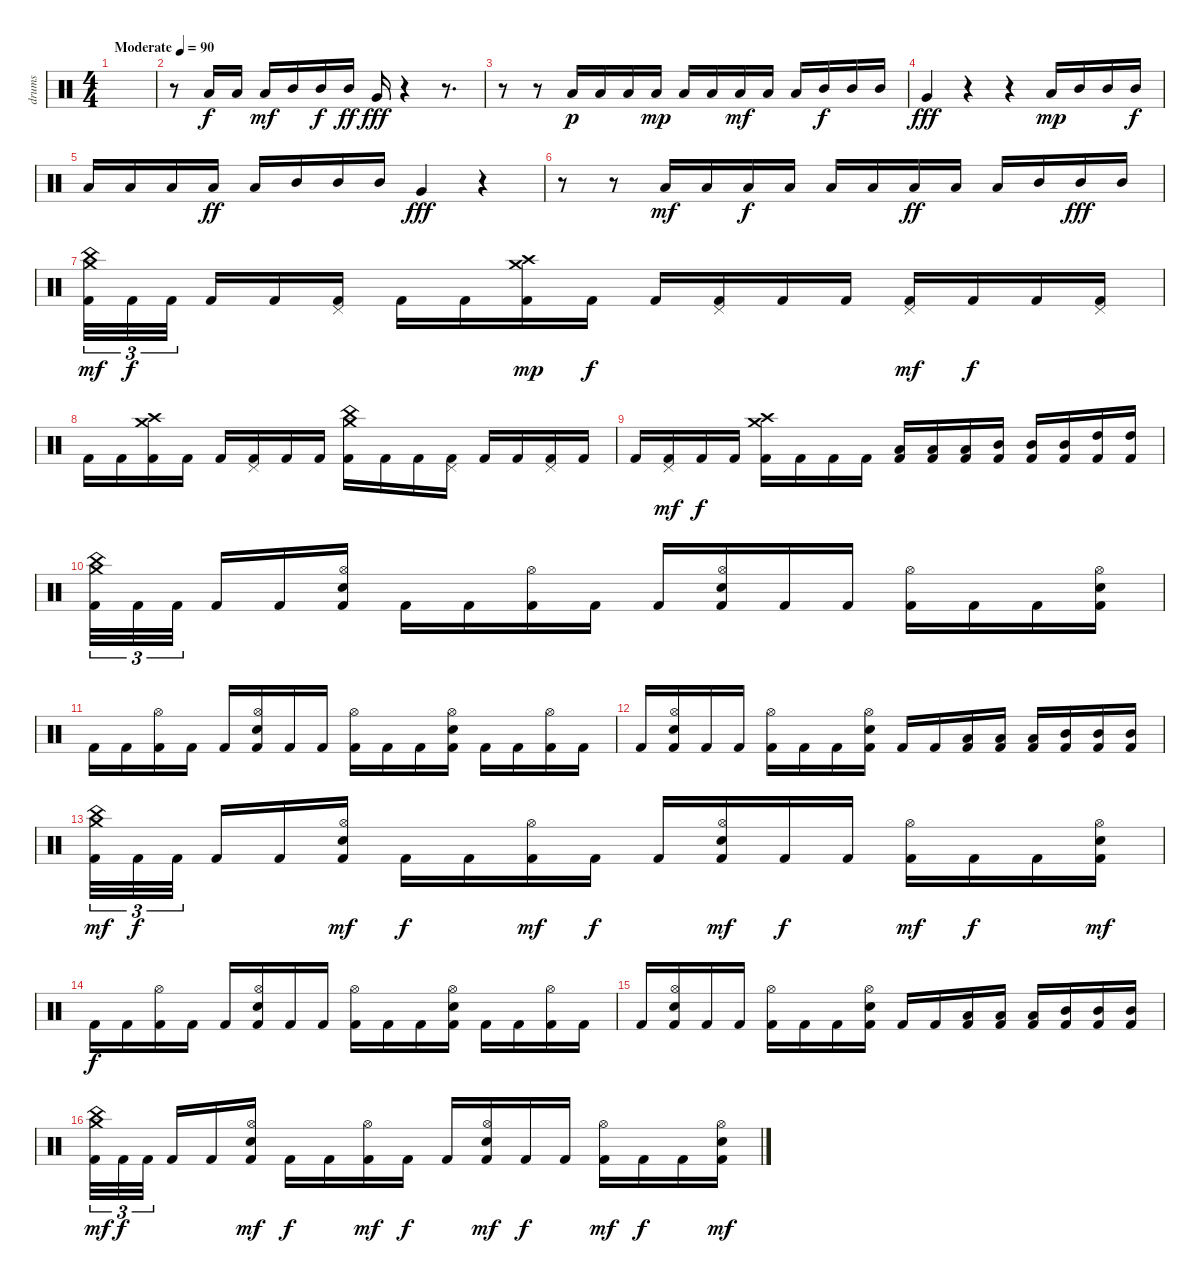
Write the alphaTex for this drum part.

\track ("drums" "drums") {instrument percussion}
\staff {score}
\articulation defaults
\ts (4 4)
\tempo (90 "Moderate")
\clef neutral
\ks c
|
r.8 "Low Tom (hit)".16 "Low Tom (hit)".16 "Low Tom (hit)".16{dy mf} "Mid Tom (hit)".16 "Mid Tom (hit)".16{dy f} "Mid Tom (hit)".16{dy ff} "Very Low Tom (hit)".16{dy fff} r.4 r.8{d} |
r.8 r.8 "Low Tom (hit)".16{dy p} "Low Tom (hit)".16 "Low Tom (hit)".16 "Low Tom (hit)".16{dy mp} "Low Tom (hit)".16 "Low Tom (hit)".16 "Low Tom (hit)".16{dy mf} "Low Tom (hit)".16 "Low Tom (hit)".16 "Mid Tom (hit)".16{dy f} "Mid Tom (hit)".16 "Mid Tom (hit)".16 |
"Very Low Tom (hit)".4{dy fff} r.4 r.4 "Low Tom (hit)".16{dy mp} "Mid Tom (hit)".16 "Mid Tom (hit)".16 "Mid Tom (hit)".16{dy f} |
"Low Tom (hit)".16 "Low Tom (hit)".16 "Low Tom (hit)".16 "Low Tom (hit)".16{dy ff} "Low Tom (hit)".16 "Mid Tom (hit)".16 "Mid Tom (hit)".16 "Mid Tom (hit)".16 "Very Low Tom (hit)".4{dy fff} r.4 |
r.8 r.8 "Low Tom (hit)".16{dy mf} "Low Tom (hit)".16 "Low Tom (hit)".16{dy f} "Low Tom (hit)".16 "Low Tom (hit)".16 "Low Tom (hit)".16 "Low Tom (hit)".16{dy ff} "Low Tom (hit)".16 "Low Tom (hit)".16 "Mid Tom (hit)".16 "Mid Tom (hit)".16{dy fff} "Mid Tom (hit)".16 |
("China (hit)" "Crash medium (hit)" "Kick (hit) 2").32{tu (3 2) dy mf} "Kick (hit) 2".32{tu (3 2) dy f} "Kick (hit) 2".32{tu (3 2) beam splitsecondary} "Kick (hit) 2".16 "Kick (hit) 2".16 ("Pedal Hi-Hat (hit)" "Kick (hit) 2").16 "Kick (hit) 2".16 "Kick (hit) 2".16 ("Crash medium (hit)" "Crash high (hit)" "Kick (hit) 2").16{dy mp} "Kick (hit) 2".16{dy f} "Kick (hit) 2".16 ("Pedal Hi-Hat (hit)" "Kick (hit) 2").16 "Kick (hit) 2".16 "Kick (hit) 2".16 ("Pedal Hi-Hat (hit)" "Kick (hit) 2").16{dy mf} "Kick (hit) 2".16{dy f} "Kick (hit) 2".16 ("Pedal Hi-Hat (hit)" "Kick (hit) 2").16 |
"Kick (hit) 2".16 "Kick (hit) 2".16 ("Crash medium (hit)" "Crash high (hit)" "Kick (hit) 2").16 "Kick (hit) 2".16 "Kick (hit) 2".16 ("Pedal Hi-Hat (hit)" "Kick (hit) 2").16 "Kick (hit) 2".16 "Kick (hit) 2".16 ("China (hit)" "Crash medium (hit)" "Kick (hit) 2").16 "Kick (hit) 2".16 "Kick (hit) 2".16 ("Pedal Hi-Hat (hit)" "Kick (hit) 2").16 "Kick (hit) 2".16 "Kick (hit) 2".16 ("Pedal Hi-Hat (hit)" "Kick (hit) 2").16 "Kick (hit) 2".16 |
"Kick (hit) 2".16 ("Pedal Hi-Hat (hit)" "Kick (hit) 2").16{dy mf} "Kick (hit) 2".16{dy f} "Kick (hit) 2".16 ("Crash medium (hit)" "Crash high (hit)" "Kick (hit) 2").16 "Kick (hit) 2".16 "Kick (hit) 2".16 "Kick (hit) 2".16 ("Low Tom (hit)" "Kick (hit) 2").16 ("Low Tom (hit)" "Kick (hit) 2").16 ("Low Tom (hit)" "Kick (hit) 2").16 ("Mid Tom (hit)" "Kick (hit) 2").16 ("Mid Tom (hit)" "Kick (hit) 2").16 ("Mid Tom (hit)" "Kick (hit) 2").16 ("High Tom (hit)" "Kick (hit) 2").16 ("High Tom (hit)" "Kick (hit) 2").16 |
("China (hit)" "Crash medium (hit)" "Kick (hit) 2").32{tu (3 2)} "Kick (hit) 2".32{tu (3 2)} "Kick (hit) 2".32{tu (3 2) beam splitsecondary} "Kick (hit) 2".16 "Kick (hit) 2".16 ("Hi-Hat (open)" "Snare (hit) 2" "Kick (hit) 2").16 "Kick (hit) 2".16 "Kick (hit) 2".16 ("Hi-Hat (open)" "Kick (hit) 2").16 "Kick (hit) 2".16 "Kick (hit) 2".16 ("Hi-Hat (open)" "Snare (hit) 2" "Kick (hit) 2").16 "Kick (hit) 2".16 "Kick (hit) 2".16 ("Hi-Hat (open)" "Kick (hit) 2").16 "Kick (hit) 2".16 "Kick (hit) 2".16 ("Hi-Hat (open)" "Snare (hit) 2" "Kick (hit) 2").16 |
"Kick (hit) 2".16 "Kick (hit) 2".16 ("Hi-Hat (open)" "Kick (hit) 2").16 "Kick (hit) 2".16 "Kick (hit) 2".16 ("Hi-Hat (open)" "Snare (hit) 2" "Kick (hit) 2").16 "Kick (hit) 2".16 "Kick (hit) 2".16 ("Hi-Hat (open)" "Kick (hit) 2").16 "Kick (hit) 2".16 "Kick (hit) 2".16 ("Hi-Hat (open)" "Snare (hit) 2" "Kick (hit) 2").16 "Kick (hit) 2".16 "Kick (hit) 2".16 ("Hi-Hat (open)" "Kick (hit) 2").16 "Kick (hit) 2".16 |
"Kick (hit) 2".16 ("Hi-Hat (open)" "Snare (hit) 2" "Kick (hit) 2").16 "Kick (hit) 2".16 "Kick (hit) 2".16 ("Hi-Hat (open)" "Kick (hit) 2").16 "Kick (hit) 2".16 "Kick (hit) 2".16 ("Hi-Hat (open)" "Snare (hit) 2" "Kick (hit) 2").16 "Kick (hit) 2".16 "Kick (hit) 2".16 ("Low Tom (hit)" "Kick (hit) 2").16 ("Low Tom (hit)" "Kick (hit) 2").16 ("Low Tom (hit)" "Kick (hit) 2").16 ("Mid Tom (hit)" "Kick (hit) 2").16 ("Mid Tom (hit)" "Kick (hit) 2").16 ("Mid Tom (hit)" "Kick (hit) 2").16 |
("China (hit)" "Crash medium (hit)" "Kick (hit) 2").32{tu (3 2) dy mf} "Kick (hit) 2".32{tu (3 2) dy f} "Kick (hit) 2".32{tu (3 2) beam splitsecondary} "Kick (hit) 2".16 "Kick (hit) 2".16 ("Hi-Hat (open)" "Snare (hit) 2" "Kick (hit) 2").16{dy mf} "Kick (hit) 2".16{dy f} "Kick (hit) 2".16 ("Hi-Hat (open)" "Kick (hit) 2").16{dy mf} "Kick (hit) 2".16{dy f} "Kick (hit) 2".16 ("Hi-Hat (open)" "Snare (hit) 2" "Kick (hit) 2").16{dy mf} "Kick (hit) 2".16{dy f} "Kick (hit) 2".16 ("Hi-Hat (open)" "Kick (hit) 2").16{dy mf} "Kick (hit) 2".16{dy f} "Kick (hit) 2".16 ("Hi-Hat (open)" "Snare (hit) 2" "Kick (hit) 2").16{dy mf} |
"Kick (hit) 2".16{dy f} "Kick (hit) 2".16 ("Hi-Hat (open)" "Kick (hit) 2").16 "Kick (hit) 2".16 "Kick (hit) 2".16 ("Hi-Hat (open)" "Snare (hit) 2" "Kick (hit) 2").16 "Kick (hit) 2".16 "Kick (hit) 2".16 ("Hi-Hat (open)" "Kick (hit) 2").16 "Kick (hit) 2".16 "Kick (hit) 2".16 ("Hi-Hat (open)" "Snare (hit) 2" "Kick (hit) 2").16 "Kick (hit) 2".16 "Kick (hit) 2".16 ("Hi-Hat (open)" "Kick (hit) 2").16 "Kick (hit) 2".16 |
"Kick (hit) 2".16 ("Hi-Hat (open)" "Snare (hit) 2" "Kick (hit) 2").16 "Kick (hit) 2".16 "Kick (hit) 2".16 ("Hi-Hat (open)" "Kick (hit) 2").16 "Kick (hit) 2".16 "Kick (hit) 2".16 ("Hi-Hat (open)" "Snare (hit) 2" "Kick (hit) 2").16 "Kick (hit) 2".16 "Kick (hit) 2".16 ("Low Tom (hit)" "Kick (hit) 2").16 ("Low Tom (hit)" "Kick (hit) 2").16 ("Low Tom (hit)" "Kick (hit) 2").16 ("Mid Tom (hit)" "Kick (hit) 2").16 ("Mid Tom (hit)" "Kick (hit) 2").16 ("Mid Tom (hit)" "Kick (hit) 2").16 |
("China (hit)" "Crash medium (hit)" "Kick (hit) 2").32{tu (3 2) dy mf} "Kick (hit) 2".32{tu (3 2) dy f} "Kick (hit) 2".32{tu (3 2) beam splitsecondary} "Kick (hit) 2".16 "Kick (hit) 2".16 ("Hi-Hat (open)" "Snare (hit) 2" "Kick (hit) 2").16{dy mf} "Kick (hit) 2".16{dy f} "Kick (hit) 2".16 ("Hi-Hat (open)" "Kick (hit) 2").16{dy mf} "Kick (hit) 2".16{dy f} "Kick (hit) 2".16 ("Hi-Hat (open)" "Snare (hit) 2" "Kick (hit) 2").16{dy mf} "Kick (hit) 2".16{dy f} "Kick (hit) 2".16 ("Hi-Hat (open)" "Kick (hit) 2").16{dy mf} "Kick (hit) 2".16{dy f} "Kick (hit) 2".16 ("Hi-Hat (open)" "Snare (hit) 2" "Kick (hit) 2").16{dy mf}
